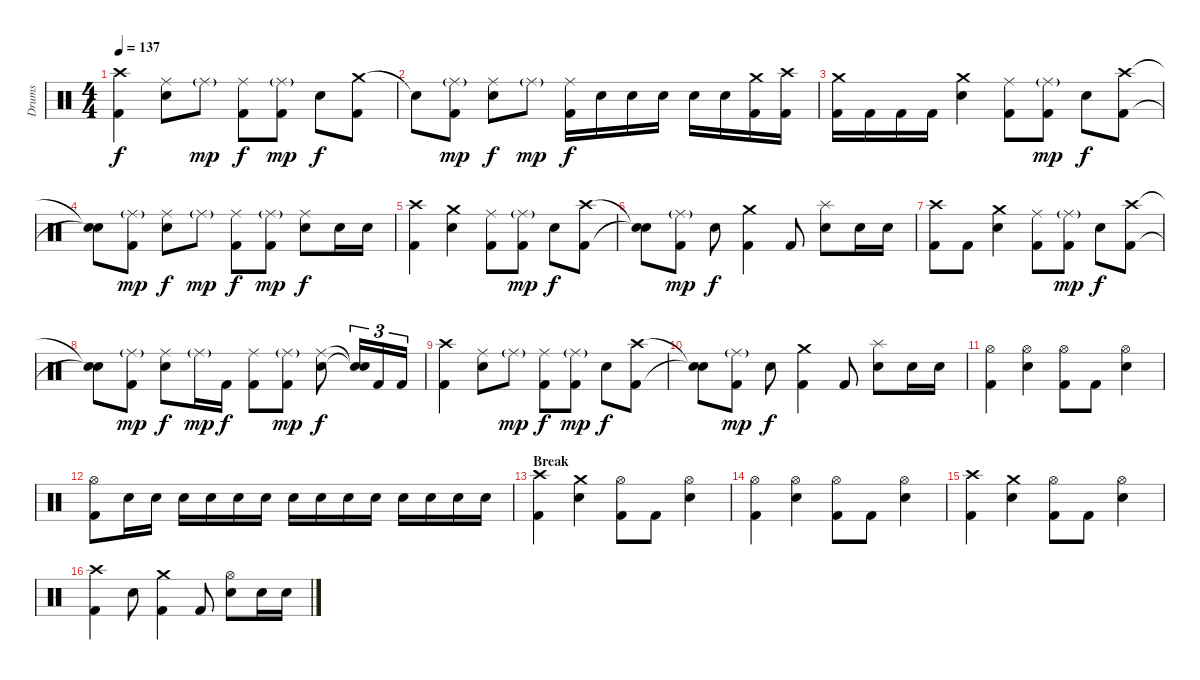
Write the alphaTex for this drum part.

\track ("Drums" "Drums") {instrument percussion}
\staff {score}
\articulation defaults
\ts (4 4)
\tempo 137
\clef neutral
\ks c
("Crash high (hit)" "Kick (hit) 2").4{dy f} ("Ride (middle)" "Snare (hit) 2").8 "Ride (middle)"{g}.8{dy mp} ("Ride (middle)" "Kick (hit) 2").8{dy f} ("Ride (middle)"{g} "Kick (hit) 2").8{dy mp} "Snare (hit) 2".8{dy f} ("Crash medium (hit)" "Kick (hit) 2").8 |
"Snare (hit)"{t}.8 ("Ride (middle)"{g} "Kick (hit) 2").8{dy mp} ("Ride (middle)" "Snare (hit) 2").8{dy f} "Ride (middle)"{g}.8{dy mp} ("Ride (middle)" "Kick (hit) 2").16{dy f} "Snare (hit) 2".16 "Snare (hit) 2".16 "Snare (hit) 2".16 "Snare (hit) 2".16 "Snare (hit) 2".16 ("Crash medium (hit)" "Kick (hit) 2").16 ("Crash high (hit)" "Kick (hit) 2").16 |
("Crash medium (hit)" "Kick (hit) 2").16 "Kick (hit) 2".16 "Kick (hit) 2".16 "Kick (hit) 2".16 ("Crash medium (hit)" "Snare (hit) 2").4 ("Ride (middle)" "Kick (hit) 2").8 ("Ride (middle)"{g} "Kick (hit) 2").8{dy mp} "Snare (hit) 2".8{dy f} ("Crash high (hit)" "Kick (hit) 2").8 |
("Snare (hit)"{t} "Snare (hit)"{t}).8 ("Ride (middle)"{g} "Kick (hit) 2").8{dy mp} ("Ride (middle)" "Snare (hit) 2").8{dy f} "Ride (middle)"{g}.8{dy mp} ("Ride (middle)" "Kick (hit) 2").8{dy f} ("Ride (middle)"{g} "Kick (hit) 2").8{dy mp} ("Ride (middle)" "Snare (hit) 2").8{dy f} "Snare (hit) 2".16 "Snare (hit) 2".16 |
("Crash high (hit)" "Kick (hit) 2").4 ("Crash medium (hit)" "Snare (hit) 2").4 ("Ride (middle)" "Kick (hit) 2").8 ("Ride (middle)"{g} "Kick (hit) 2").8{dy mp} "Snare (hit) 2".8{dy f} ("Crash high (hit)" "Kick (hit) 2").8 |
("Snare (hit)"{t} "Snare (hit)"{t}).8 ("Ride (middle)"{g} "Kick (hit) 2").8{dy mp} "Snare (hit) 2".8{dy f} ("Crash medium (hit)" "Kick (hit) 2").4 "Kick (hit) 2".8 ("Splash (hit)" "Snare (hit) 2").8 "Snare (hit) 2".16 "Snare (hit) 2".16 |
("Crash high (hit)" "Kick (hit) 2").8 "Kick (hit) 2".8 ("Crash medium (hit)" "Snare (hit) 2").4 ("Ride (middle)" "Kick (hit) 2").8 ("Ride (middle)"{g} "Kick (hit) 2").8{dy mp} "Snare (hit) 2".8{dy f} ("Crash high (hit)" "Kick (hit) 2").8 |
("Snare (hit)"{t} "Snare (hit)"{t}).8 ("Ride (middle)"{g} "Kick (hit) 2").8{dy mp} ("Ride (middle)" "Snare (hit) 2").8{dy f} "Ride (middle)"{g}.16{dy mp} "Kick (hit) 2".16{dy f} ("Ride (middle)" "Kick (hit) 2").8 ("Ride (middle)"{g} "Kick (hit) 2").8{dy mp} ("Ride (middle)" "Snare (hit) 2").8{dy f} ("Snare (hit)"{t} "Snare (hit)"{t}).16{tu (3 2)} "Kick (hit) 2".16{tu (3 2)} "Kick (hit) 2".16{tu (3 2)} |
("Crash high (hit)" "Kick (hit) 2").4 ("Ride (middle)" "Snare (hit) 2").8 "Ride (middle)"{g}.8{dy mp} ("Ride (middle)" "Kick (hit) 2").8{dy f} ("Ride (middle)"{g} "Kick (hit) 2").8{dy mp} "Snare (hit) 2".8{dy f} ("Crash high (hit)" "Kick (hit) 2").8 |
("Snare (hit)"{t} "Snare (hit)"{t}).8 ("Ride (middle)"{g} "Kick (hit) 2").8{dy mp} "Snare (hit) 2".8{dy f} ("Crash medium (hit)" "Kick (hit) 2").4 "Kick (hit) 2".8 ("Splash (hit)" "Snare (hit) 2").8 "Snare (hit) 2".16 "Snare (hit) 2".16 |
("Hi-Hat (open)" "Kick (hit) 2").4 ("Hi-Hat (open)" "Snare (hit) 2").4 ("Hi-Hat (open)" "Kick (hit) 2").8 "Kick (hit) 2".8 ("Hi-Hat (open)" "Snare (hit) 2").4 |
("Hi-Hat (open)" "Kick (hit) 2").8 "Snare (hit) 2".16 "Snare (hit) 2".16 "Snare (hit) 2".16 "Snare (hit) 2".16 "Snare (hit) 2".16 "Snare (hit) 2".16 "Snare (hit) 2".16 "Snare (hit) 2".16 "Snare (hit) 2".16 "Snare (hit) 2".16 "Snare (hit) 2".16 "Snare (hit) 2".16 "Snare (hit) 2".16 "Snare (hit) 2".16 |
\section ("" "Break")
("Crash high (hit)" "Kick (hit) 2").4 ("Crash medium (hit)" "Snare (hit) 2").4 ("Hi-Hat (open)" "Kick (hit) 2").8 "Kick (hit) 2".8 ("Hi-Hat (open)" "Snare (hit) 2").4 |
("Hi-Hat (open)" "Kick (hit) 2").4 ("Hi-Hat (open)" "Snare (hit) 2").4 ("Hi-Hat (open)" "Kick (hit) 2").8 "Kick (hit) 2".8 ("Hi-Hat (open)" "Snare (hit) 2").4 |
("Crash high (hit)" "Kick (hit) 2").4 ("Crash medium (hit)" "Snare (hit) 2").4 ("Hi-Hat (open)" "Kick (hit) 2").8 "Kick (hit) 2".8 ("Hi-Hat (open)" "Snare (hit) 2").4 |
("Crash high (hit)" "Kick (hit) 2").4 "Snare (hit) 2".8 ("Crash medium (hit)" "Kick (hit) 2").4 "Kick (hit) 2".8 ("Hi-Hat (open)" "Snare (hit) 2").8 "Snare (hit) 2".16 "Snare (hit) 2".16
